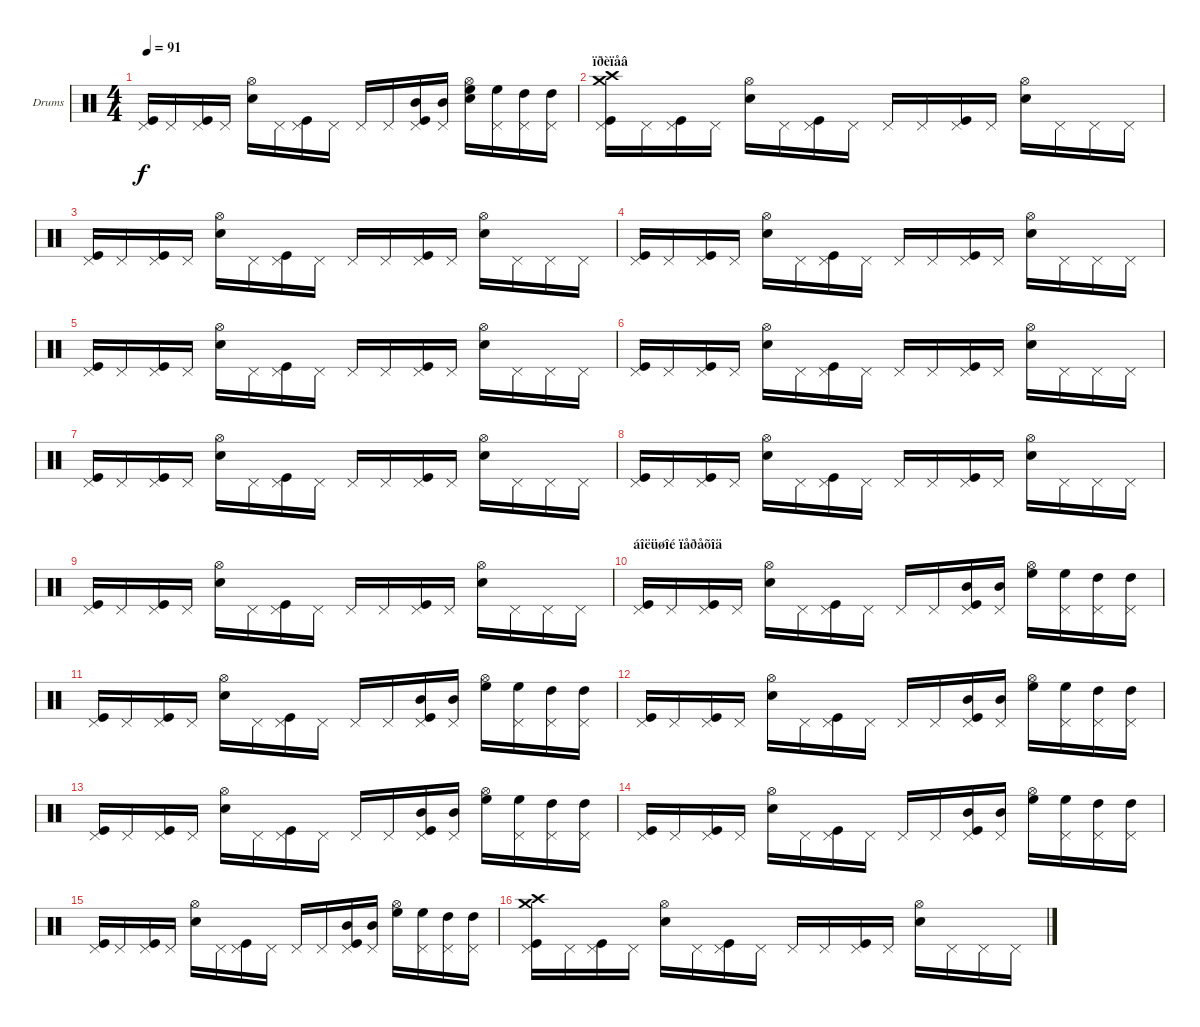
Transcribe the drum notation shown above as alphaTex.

\bracketExtendMode groupsimilarinstruments
\firstSystemTrackNameOrientation horizontal
\otherSystemsTrackNameOrientation horizontal
\track ("Drumkit" "Drums") {instrument percussion}
\staff {score}
\articulation defaults
\ts (4 4)
\tempo 91
\clef neutral
\ks c
("Pedal Hi-Hat (hit)" "Kick (hit)").16{dy f} "Pedal Hi-Hat (hit)".16 ("Pedal Hi-Hat (hit)" "Kick (hit)").16 "Pedal Hi-Hat (hit)".16 ("Hi-Hat (open)" "Snare (hit) 2").16 "Pedal Hi-Hat (hit)".16 ("Pedal Hi-Hat (hit)" "Kick (hit)").16 "Pedal Hi-Hat (hit)".16 "Pedal Hi-Hat (hit)".16 "Pedal Hi-Hat (hit)".16 ("Pedal Hi-Hat (hit)" "Kick (hit)" "Mid Tom (hit)").16 ("Pedal Hi-Hat (hit)" "Mid Tom (hit)").16 ("Hi-Hat (open)" "Snare (hit) 2" "High Floor Tom (hit)").16 ("Pedal Hi-Hat (hit)" "High Floor Tom (hit)").16 ("Pedal Hi-Hat (hit)" "High Tom (hit)").16 ("Pedal Hi-Hat (hit)" "High Tom (hit)").16 |
\section ("" "ïðèïåâ")
("Pedal Hi-Hat (hit)" "Kick (hit)" "Crash medium (hit)" "Crash high (hit)").16 "Pedal Hi-Hat (hit)".16 ("Pedal Hi-Hat (hit)" "Kick (hit)").16 "Pedal Hi-Hat (hit)".16 ("Hi-Hat (open)" "Snare (hit) 2").16 "Pedal Hi-Hat (hit)".16 ("Pedal Hi-Hat (hit)" "Kick (hit)").16 "Pedal Hi-Hat (hit)".16 "Pedal Hi-Hat (hit)".16 "Pedal Hi-Hat (hit)".16 ("Pedal Hi-Hat (hit)" "Kick (hit)").16 "Pedal Hi-Hat (hit)".16 ("Hi-Hat (open)" "Snare (hit) 2").16 "Pedal Hi-Hat (hit)".16 "Pedal Hi-Hat (hit)".16 "Pedal Hi-Hat (hit)".16 |
("Pedal Hi-Hat (hit)" "Kick (hit)").16 "Pedal Hi-Hat (hit)".16 ("Pedal Hi-Hat (hit)" "Kick (hit)").16 "Pedal Hi-Hat (hit)".16 ("Hi-Hat (open)" "Snare (hit) 2").16 "Pedal Hi-Hat (hit)".16 ("Pedal Hi-Hat (hit)" "Kick (hit)").16 "Pedal Hi-Hat (hit)".16 "Pedal Hi-Hat (hit)".16 "Pedal Hi-Hat (hit)".16 ("Pedal Hi-Hat (hit)" "Kick (hit)").16 "Pedal Hi-Hat (hit)".16 ("Hi-Hat (open)" "Snare (hit) 2").16 "Pedal Hi-Hat (hit)".16 "Pedal Hi-Hat (hit)".16 "Pedal Hi-Hat (hit)".16 |
("Pedal Hi-Hat (hit)" "Kick (hit)").16 "Pedal Hi-Hat (hit)".16 ("Pedal Hi-Hat (hit)" "Kick (hit)").16 "Pedal Hi-Hat (hit)".16 ("Hi-Hat (open)" "Snare (hit) 2").16 "Pedal Hi-Hat (hit)".16 ("Pedal Hi-Hat (hit)" "Kick (hit)").16 "Pedal Hi-Hat (hit)".16 "Pedal Hi-Hat (hit)".16 "Pedal Hi-Hat (hit)".16 ("Pedal Hi-Hat (hit)" "Kick (hit)").16 "Pedal Hi-Hat (hit)".16 ("Hi-Hat (open)" "Snare (hit) 2").16 "Pedal Hi-Hat (hit)".16 "Pedal Hi-Hat (hit)".16 "Pedal Hi-Hat (hit)".16 |
("Pedal Hi-Hat (hit)" "Kick (hit)").16 "Pedal Hi-Hat (hit)".16 ("Pedal Hi-Hat (hit)" "Kick (hit)").16 "Pedal Hi-Hat (hit)".16 ("Hi-Hat (open)" "Snare (hit) 2").16 "Pedal Hi-Hat (hit)".16 ("Pedal Hi-Hat (hit)" "Kick (hit)").16 "Pedal Hi-Hat (hit)".16 "Pedal Hi-Hat (hit)".16 "Pedal Hi-Hat (hit)".16 ("Pedal Hi-Hat (hit)" "Kick (hit)").16 "Pedal Hi-Hat (hit)".16 ("Hi-Hat (open)" "Snare (hit) 2").16 "Pedal Hi-Hat (hit)".16 "Pedal Hi-Hat (hit)".16 "Pedal Hi-Hat (hit)".16 |
("Pedal Hi-Hat (hit)" "Kick (hit)").16 "Pedal Hi-Hat (hit)".16 ("Pedal Hi-Hat (hit)" "Kick (hit)").16 "Pedal Hi-Hat (hit)".16 ("Hi-Hat (open)" "Snare (hit) 2").16 "Pedal Hi-Hat (hit)".16 ("Pedal Hi-Hat (hit)" "Kick (hit)").16 "Pedal Hi-Hat (hit)".16 "Pedal Hi-Hat (hit)".16 "Pedal Hi-Hat (hit)".16 ("Pedal Hi-Hat (hit)" "Kick (hit)").16 "Pedal Hi-Hat (hit)".16 ("Hi-Hat (open)" "Snare (hit) 2").16 "Pedal Hi-Hat (hit)".16 "Pedal Hi-Hat (hit)".16 "Pedal Hi-Hat (hit)".16 |
("Pedal Hi-Hat (hit)" "Kick (hit)").16 "Pedal Hi-Hat (hit)".16 ("Pedal Hi-Hat (hit)" "Kick (hit)").16 "Pedal Hi-Hat (hit)".16 ("Hi-Hat (open)" "Snare (hit) 2").16 "Pedal Hi-Hat (hit)".16 ("Pedal Hi-Hat (hit)" "Kick (hit)").16 "Pedal Hi-Hat (hit)".16 "Pedal Hi-Hat (hit)".16 "Pedal Hi-Hat (hit)".16 ("Pedal Hi-Hat (hit)" "Kick (hit)").16 "Pedal Hi-Hat (hit)".16 ("Hi-Hat (open)" "Snare (hit) 2").16 "Pedal Hi-Hat (hit)".16 "Pedal Hi-Hat (hit)".16 "Pedal Hi-Hat (hit)".16 |
("Pedal Hi-Hat (hit)" "Kick (hit)").16 "Pedal Hi-Hat (hit)".16 ("Pedal Hi-Hat (hit)" "Kick (hit)").16 "Pedal Hi-Hat (hit)".16 ("Hi-Hat (open)" "Snare (hit) 2").16 "Pedal Hi-Hat (hit)".16 ("Pedal Hi-Hat (hit)" "Kick (hit)").16 "Pedal Hi-Hat (hit)".16 "Pedal Hi-Hat (hit)".16 "Pedal Hi-Hat (hit)".16 ("Pedal Hi-Hat (hit)" "Kick (hit)").16 "Pedal Hi-Hat (hit)".16 ("Hi-Hat (open)" "Snare (hit) 2").16 "Pedal Hi-Hat (hit)".16 "Pedal Hi-Hat (hit)".16 "Pedal Hi-Hat (hit)".16 |
("Pedal Hi-Hat (hit)" "Kick (hit)").16 "Pedal Hi-Hat (hit)".16 ("Pedal Hi-Hat (hit)" "Kick (hit)").16 "Pedal Hi-Hat (hit)".16 ("Hi-Hat (open)" "Snare (hit) 2").16 "Pedal Hi-Hat (hit)".16 ("Pedal Hi-Hat (hit)" "Kick (hit)").16 "Pedal Hi-Hat (hit)".16 "Pedal Hi-Hat (hit)".16 "Pedal Hi-Hat (hit)".16 ("Pedal Hi-Hat (hit)" "Kick (hit)").16 "Pedal Hi-Hat (hit)".16 ("Hi-Hat (open)" "Snare (hit) 2").16 "Pedal Hi-Hat (hit)".16 "Pedal Hi-Hat (hit)".16 "Pedal Hi-Hat (hit)".16 |
\section ("" "áîëüøîé ïåðåõîä")
("Pedal Hi-Hat (hit)" "Kick (hit)").16 "Pedal Hi-Hat (hit)".16 ("Pedal Hi-Hat (hit)" "Kick (hit)").16 "Pedal Hi-Hat (hit)".16 ("Hi-Hat (open)" "Snare (hit) 2").16 "Pedal Hi-Hat (hit)".16 ("Pedal Hi-Hat (hit)" "Kick (hit)").16 "Pedal Hi-Hat (hit)".16 "Pedal Hi-Hat (hit)".16 "Pedal Hi-Hat (hit)".16 ("Pedal Hi-Hat (hit)" "Kick (hit)" "Mid Tom (hit)").16 ("Pedal Hi-Hat (hit)" "Mid Tom (hit)").16 ("Hi-Hat (open)" "High Floor Tom (hit)").16 ("Pedal Hi-Hat (hit)" "High Floor Tom (hit)").16 ("Pedal Hi-Hat (hit)" "High Tom (hit)").16 ("Pedal Hi-Hat (hit)" "High Tom (hit)").16 |
("Pedal Hi-Hat (hit)" "Kick (hit)").16 "Pedal Hi-Hat (hit)".16 ("Pedal Hi-Hat (hit)" "Kick (hit)").16 "Pedal Hi-Hat (hit)".16 ("Hi-Hat (open)" "Snare (hit) 2").16 "Pedal Hi-Hat (hit)".16 ("Pedal Hi-Hat (hit)" "Kick (hit)").16 "Pedal Hi-Hat (hit)".16 "Pedal Hi-Hat (hit)".16 "Pedal Hi-Hat (hit)".16 ("Pedal Hi-Hat (hit)" "Kick (hit)" "Mid Tom (hit)").16 ("Pedal Hi-Hat (hit)" "Mid Tom (hit)").16 ("Hi-Hat (open)" "High Floor Tom (hit)").16 ("Pedal Hi-Hat (hit)" "High Floor Tom (hit)").16 ("Pedal Hi-Hat (hit)" "High Tom (hit)").16 ("Pedal Hi-Hat (hit)" "High Tom (hit)").16 |
("Pedal Hi-Hat (hit)" "Kick (hit)").16 "Pedal Hi-Hat (hit)".16 ("Pedal Hi-Hat (hit)" "Kick (hit)").16 "Pedal Hi-Hat (hit)".16 ("Hi-Hat (open)" "Snare (hit) 2").16 "Pedal Hi-Hat (hit)".16 ("Pedal Hi-Hat (hit)" "Kick (hit)").16 "Pedal Hi-Hat (hit)".16 "Pedal Hi-Hat (hit)".16 "Pedal Hi-Hat (hit)".16 ("Pedal Hi-Hat (hit)" "Kick (hit)" "Mid Tom (hit)").16 ("Pedal Hi-Hat (hit)" "Mid Tom (hit)").16 ("Hi-Hat (open)" "High Floor Tom (hit)").16 ("Pedal Hi-Hat (hit)" "High Floor Tom (hit)").16 ("Pedal Hi-Hat (hit)" "High Tom (hit)").16 ("Pedal Hi-Hat (hit)" "High Tom (hit)").16 |
("Pedal Hi-Hat (hit)" "Kick (hit)").16 "Pedal Hi-Hat (hit)".16 ("Pedal Hi-Hat (hit)" "Kick (hit)").16 "Pedal Hi-Hat (hit)".16 ("Hi-Hat (open)" "Snare (hit) 2").16 "Pedal Hi-Hat (hit)".16 ("Pedal Hi-Hat (hit)" "Kick (hit)").16 "Pedal Hi-Hat (hit)".16 "Pedal Hi-Hat (hit)".16 "Pedal Hi-Hat (hit)".16 ("Pedal Hi-Hat (hit)" "Kick (hit)" "Mid Tom (hit)").16 ("Pedal Hi-Hat (hit)" "Mid Tom (hit)").16 ("Hi-Hat (open)" "High Floor Tom (hit)").16 ("Pedal Hi-Hat (hit)" "High Floor Tom (hit)").16 ("Pedal Hi-Hat (hit)" "High Tom (hit)").16 ("Pedal Hi-Hat (hit)" "High Tom (hit)").16 |
("Pedal Hi-Hat (hit)" "Kick (hit)").16 "Pedal Hi-Hat (hit)".16 ("Pedal Hi-Hat (hit)" "Kick (hit)").16 "Pedal Hi-Hat (hit)".16 ("Hi-Hat (open)" "Snare (hit) 2").16 "Pedal Hi-Hat (hit)".16 ("Pedal Hi-Hat (hit)" "Kick (hit)").16 "Pedal Hi-Hat (hit)".16 "Pedal Hi-Hat (hit)".16 "Pedal Hi-Hat (hit)".16 ("Pedal Hi-Hat (hit)" "Kick (hit)" "Mid Tom (hit)").16 ("Pedal Hi-Hat (hit)" "Mid Tom (hit)").16 ("Hi-Hat (open)" "High Floor Tom (hit)").16 ("Pedal Hi-Hat (hit)" "High Floor Tom (hit)").16 ("Pedal Hi-Hat (hit)" "High Tom (hit)").16 ("Pedal Hi-Hat (hit)" "High Tom (hit)").16 |
("Pedal Hi-Hat (hit)" "Kick (hit)").16 "Pedal Hi-Hat (hit)".16 ("Pedal Hi-Hat (hit)" "Kick (hit)").16 "Pedal Hi-Hat (hit)".16 ("Hi-Hat (open)" "Snare (hit) 2").16 "Pedal Hi-Hat (hit)".16 ("Pedal Hi-Hat (hit)" "Kick (hit)").16 "Pedal Hi-Hat (hit)".16 "Pedal Hi-Hat (hit)".16 "Pedal Hi-Hat (hit)".16 ("Pedal Hi-Hat (hit)" "Kick (hit)" "Mid Tom (hit)").16 ("Pedal Hi-Hat (hit)" "Mid Tom (hit)").16 ("Hi-Hat (open)" "High Floor Tom (hit)").16 ("Pedal Hi-Hat (hit)" "High Floor Tom (hit)").16 ("Pedal Hi-Hat (hit)" "High Tom (hit)").16 ("Pedal Hi-Hat (hit)" "High Tom (hit)").16 |
("Pedal Hi-Hat (hit)" "Kick (hit)" "Crash medium (hit)" "Crash high (hit)").16 "Pedal Hi-Hat (hit)".16 ("Pedal Hi-Hat (hit)" "Kick (hit)").16 "Pedal Hi-Hat (hit)".16 ("Hi-Hat (open)" "Snare (hit) 2").16 "Pedal Hi-Hat (hit)".16 ("Pedal Hi-Hat (hit)" "Kick (hit)").16 "Pedal Hi-Hat (hit)".16 "Pedal Hi-Hat (hit)".16 "Pedal Hi-Hat (hit)".16 ("Pedal Hi-Hat (hit)" "Kick (hit)").16 "Pedal Hi-Hat (hit)".16 ("Hi-Hat (open)" "Snare (hit) 2").16 "Pedal Hi-Hat (hit)".16 "Pedal Hi-Hat (hit)".16 "Pedal Hi-Hat (hit)".16
